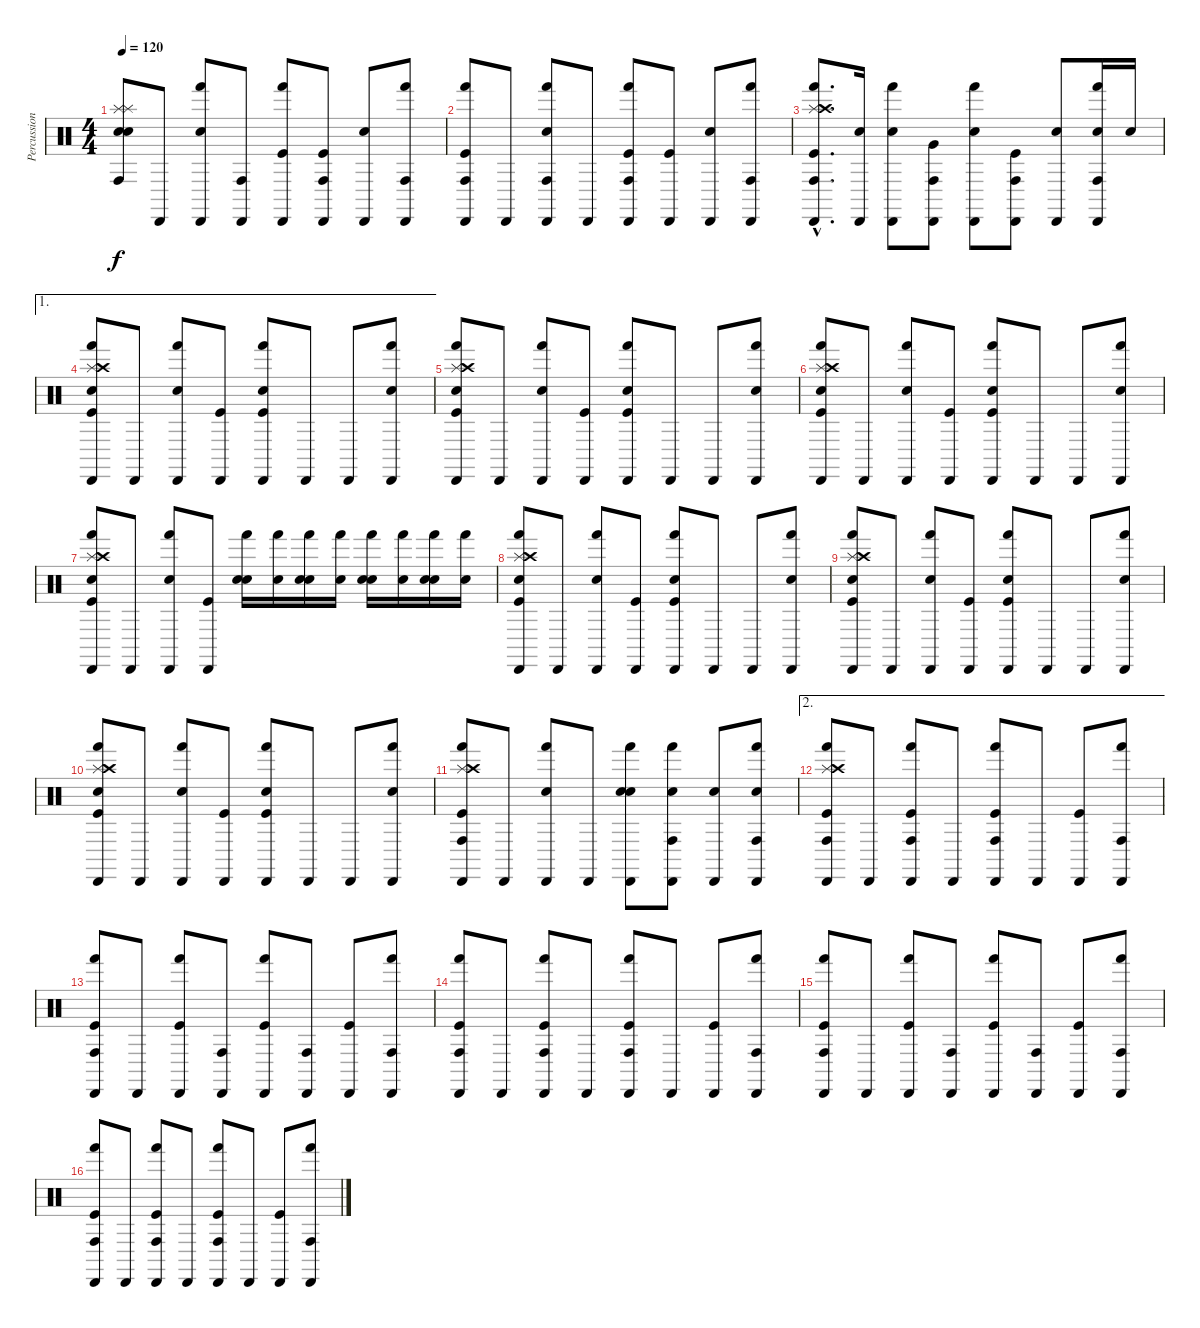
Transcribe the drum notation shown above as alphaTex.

\track ("Percussion" "Percussion") {instrument percussion}
\staff {score}
\articulation defaults
\ts (4 4)
\tempo 120
\clef neutral
\ks c
("Splash (hit)" "Snare (hit)" "Splash (hit)" "Conga high (hit)" "Snare (hit)").8{dy f} "Cabasa (hit)".8 ("Cabasa (hit)" "Electric Snare (hit)" "Hand (hit)").8 ("Cabasa (hit)" "Conga high (hit)").8 ("Cabasa (hit)" "Kick (hit)" "Hand (hit)").8 ("Cabasa (hit)" "Kick (hit)" "Conga high (hit)").8 ("Cabasa (hit)" "Electric Snare (hit)").8 ("Cabasa (hit)" "Hand (hit)" "Conga high (hit)").8 |
("Cabasa (hit)" "Kick (hit)" "Hand (hit)" "Conga high (hit)").8 "Cabasa (hit)".8 ("Cabasa (hit)" "Electric Snare (hit)" "Hand (hit)" "Conga high (hit)").8 "Cabasa (hit)".8 ("Cabasa (hit)" "Kick (hit)" "Hand (hit)" "Conga high (hit)").8 ("Cabasa (hit)" "Kick (hit)").8 ("Cabasa (hit)" "Electric Snare (hit)").8 ("Cabasa (hit)" "Hand (hit)" "Conga high (hit)").8 |
("Cabasa (hit)"{hac} "Kick (hit)"{hac} "Hand (hit)"{hac} "Conga high (hit)"{hac} "Splash (hit)"{hac} "Crash high (hit)"{hac}).8{d} ("Cabasa (hit)" "Snare (hit) 2").16 ("Cabasa (hit)" "Snare (hit) 2" "Hand (hit)").8 ("Cabasa (hit)" "Very Low Tom (hit)" "Conga high (hit)").8 ("Cabasa (hit)" "Snare (hit) 2" "Hand (hit)").8 ("Cabasa (hit)" "Kick (hit)" "Conga high (hit)").8 ("Cabasa (hit)" "Snare (hit) 2").8 ("Cabasa (hit)" "Snare (hit) 2" "Hand (hit)" "Conga high (hit)").16 "Snare (hit) 2".16 |
\ae 1
("Cabasa (hit)" "Kick (hit)" "Hand (hit)" "Snare (hit)" "Splash (hit)" "Crash high (hit)").8 "Cabasa (hit)".8 ("Cabasa (hit)" "Hand (hit)" "Snare (hit)").8 ("Cabasa (hit)" "Kick (hit)").8 ("Cabasa (hit)" "Kick (hit)" "Hand (hit)" "Snare (hit)").8 "Cabasa (hit)".8 "Cabasa (hit)".8 ("Cabasa (hit)" "Hand (hit)" "Snare (hit)").8 |
("Cabasa (hit)" "Kick (hit)" "Hand (hit)" "Snare (hit)" "Splash (hit)" "Crash high (hit)").8 "Cabasa (hit)".8 ("Cabasa (hit)" "Hand (hit)" "Snare (hit)").8 ("Cabasa (hit)" "Kick (hit)").8 ("Cabasa (hit)" "Kick (hit)" "Hand (hit)" "Snare (hit)").8 "Cabasa (hit)".8 "Cabasa (hit)".8 ("Cabasa (hit)" "Hand (hit)" "Snare (hit)").8 |
("Cabasa (hit)" "Kick (hit)" "Hand (hit)" "Snare (hit)" "Splash (hit)" "Crash high (hit)").8 "Cabasa (hit)".8 ("Cabasa (hit)" "Hand (hit)" "Snare (hit)").8 ("Cabasa (hit)" "Kick (hit)").8 ("Cabasa (hit)" "Kick (hit)" "Hand (hit)" "Snare (hit)").8 "Cabasa (hit)".8 "Cabasa (hit)".8 ("Cabasa (hit)" "Hand (hit)" "Snare (hit)").8 |
("Cabasa (hit)" "Kick (hit)" "Hand (hit)" "Snare (hit)" "Splash (hit)" "Crash high (hit)").8 "Cabasa (hit)".8 ("Cabasa (hit)" "Hand (hit)" "Snare (hit)").8 ("Cabasa (hit)" "Kick (hit)").8 ("Electric Snare (hit)" "Hand (hit)" "Snare (hit)").16 ("Electric Snare (hit)" "Hand (hit)").16 ("Electric Snare (hit)" "Hand (hit)" "Snare (hit)").16 ("Electric Snare (hit)" "Hand (hit)").16 ("Electric Snare (hit)" "Hand (hit)" "Snare (hit)").16 ("Electric Snare (hit)" "Hand (hit)").16 ("Electric Snare (hit)" "Hand (hit)" "Snare (hit)").16 ("Electric Snare (hit)" "Hand (hit)").16 |
("Cabasa (hit)" "Kick (hit)" "Hand (hit)" "Snare (hit)" "Splash (hit)" "Crash high (hit)").8 "Cabasa (hit)".8 ("Cabasa (hit)" "Hand (hit)" "Snare (hit)").8 ("Cabasa (hit)" "Kick (hit)").8 ("Cabasa (hit)" "Kick (hit)" "Hand (hit)" "Snare (hit)").8 "Cabasa (hit)".8 "Cabasa (hit)".8 ("Cabasa (hit)" "Hand (hit)" "Snare (hit)").8 |
("Cabasa (hit)" "Kick (hit)" "Hand (hit)" "Snare (hit)" "Splash (hit)" "Crash high (hit)").8 "Cabasa (hit)".8 ("Cabasa (hit)" "Hand (hit)" "Snare (hit)").8 ("Cabasa (hit)" "Kick (hit)").8 ("Cabasa (hit)" "Kick (hit)" "Hand (hit)" "Snare (hit)").8 "Cabasa (hit)".8 "Cabasa (hit)".8 ("Cabasa (hit)" "Hand (hit)" "Snare (hit)").8 |
("Cabasa (hit)" "Kick (hit)" "Hand (hit)" "Snare (hit)" "Splash (hit)" "Crash high (hit)").8 "Cabasa (hit)".8 ("Cabasa (hit)" "Hand (hit)" "Snare (hit)").8 ("Cabasa (hit)" "Kick (hit)").8 ("Cabasa (hit)" "Kick (hit)" "Hand (hit)" "Snare (hit)").8 "Cabasa (hit)".8 "Cabasa (hit)".8 ("Cabasa (hit)" "Hand (hit)" "Snare (hit)").8 |
("Cabasa (hit)" "Kick (hit)" "Hand (hit)" "Conga high (hit)" "Splash (hit)" "Crash high (hit)").8 "Cabasa (hit)".8 ("Cabasa (hit)" "Hand (hit)" "Snare (hit)").8 "Cabasa (hit)".8 ("Cabasa (hit)" "Electric Snare (hit)" "Hand (hit)" "Snare (hit)").8 ("Cabasa (hit)" "Electric Snare (hit)" "Hand (hit)" "Conga high (hit)").8 ("Cabasa (hit)" "Electric Snare (hit)").8 ("Cabasa (hit)" "Electric Snare (hit)" "Hand (hit)" "Conga high (hit)").8 |
\ae 2
("Cabasa (hit)" "Kick (hit)" "Hand (hit)" "Conga high (hit)" "Splash (hit)" "Crash high (hit)").8 "Cabasa (hit)".8 ("Cabasa (hit)" "Kick (hit)" "Hand (hit)" "Conga high (hit)").8 "Cabasa (hit)".8 ("Cabasa (hit)" "Kick (hit)" "Hand (hit)" "Conga high (hit)").8 "Cabasa (hit)".8 ("Cabasa (hit)" "Kick (hit)").8 ("Cabasa (hit)" "Hand (hit)" "Conga high (hit)").8 |
("Cabasa (hit)" "Kick (hit)" "Hand (hit)" "Conga high (hit)").8 "Cabasa (hit)".8 ("Cabasa (hit)" "Kick (hit)" "Hand (hit)").8 ("Cabasa (hit)" "Conga high (hit)").8 ("Cabasa (hit)" "Kick (hit)" "Hand (hit)").8 ("Cabasa (hit)" "Conga high (hit)").8 ("Cabasa (hit)" "Kick (hit)").8 ("Cabasa (hit)" "Hand (hit)" "Conga high (hit)").8 |
("Cabasa (hit)" "Kick (hit)" "Hand (hit)" "Conga high (hit)").8 "Cabasa (hit)".8 ("Cabasa (hit)" "Kick (hit)" "Hand (hit)" "Conga high (hit)").8 "Cabasa (hit)".8 ("Cabasa (hit)" "Kick (hit)" "Hand (hit)" "Conga high (hit)").8 "Cabasa (hit)".8 ("Cabasa (hit)" "Kick (hit)").8 ("Cabasa (hit)" "Hand (hit)" "Conga high (hit)").8 |
("Cabasa (hit)" "Kick (hit)" "Hand (hit)" "Conga high (hit)").8 "Cabasa (hit)".8 ("Cabasa (hit)" "Kick (hit)" "Hand (hit)").8 ("Cabasa (hit)" "Conga high (hit)").8 ("Cabasa (hit)" "Kick (hit)" "Hand (hit)").8 ("Cabasa (hit)" "Conga high (hit)").8 ("Cabasa (hit)" "Kick (hit)").8 ("Cabasa (hit)" "Hand (hit)" "Conga high (hit)").8 |
("Cabasa (hit)" "Kick (hit)" "Hand (hit)" "Conga high (hit)").8 "Cabasa (hit)".8 ("Cabasa (hit)" "Kick (hit)" "Hand (hit)" "Conga high (hit)").8 "Cabasa (hit)".8 ("Cabasa (hit)" "Kick (hit)" "Hand (hit)" "Conga high (hit)").8 "Cabasa (hit)".8 ("Cabasa (hit)" "Kick (hit)").8 ("Cabasa (hit)" "Hand (hit)" "Conga high (hit)").8
